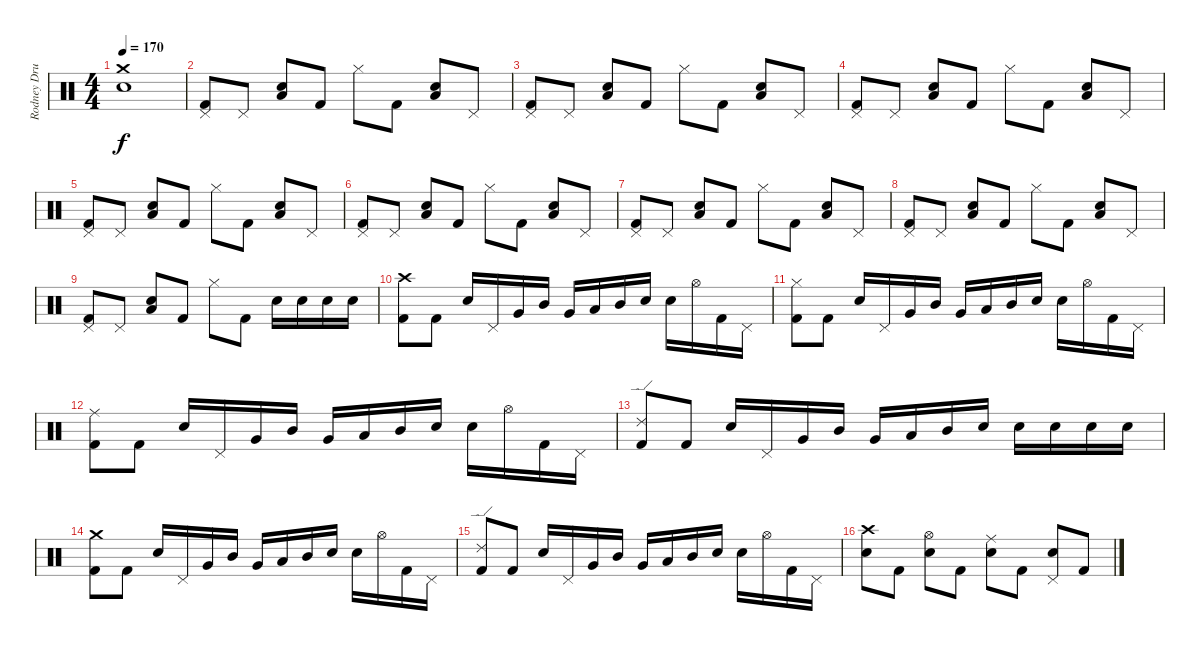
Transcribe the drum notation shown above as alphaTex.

\track ("Rodney Drums" "Rodney Dru") {instrument percussion}
\staff {score}
\articulation defaults
\ts (4 4)
\tempo 170
\clef neutral
\ks c
("Crash medium (hit)" "Electric Snare (hit)").1{dy f} |
("Pedal Hi-Hat (hit)" "Kick (hit) 2").8 "Pedal Hi-Hat (hit)".8 ("Electric Snare (hit)" "Low Tom (hit)").8 "Kick (hit) 2".8 "Hi-Hat (closed)".8 "Kick (hit) 2".8 ("Electric Snare (hit)" "Low Tom (hit)").8 "Pedal Hi-Hat (hit)".8 |
("Pedal Hi-Hat (hit)" "Kick (hit) 2").8 "Pedal Hi-Hat (hit)".8 ("Electric Snare (hit)" "Low Tom (hit)").8 "Kick (hit) 2".8 "Hi-Hat (closed)".8 "Kick (hit) 2".8 ("Electric Snare (hit)" "Low Tom (hit)").8 "Pedal Hi-Hat (hit)".8 |
("Pedal Hi-Hat (hit)" "Kick (hit) 2").8 "Pedal Hi-Hat (hit)".8 ("Electric Snare (hit)" "Low Tom (hit)").8 "Kick (hit) 2".8 "Hi-Hat (closed)".8 "Kick (hit) 2".8 ("Electric Snare (hit)" "Low Tom (hit)").8 "Pedal Hi-Hat (hit)".8 |
("Pedal Hi-Hat (hit)" "Kick (hit) 2").8 "Pedal Hi-Hat (hit)".8 ("Electric Snare (hit)" "Low Tom (hit)").8 "Kick (hit) 2".8 "Hi-Hat (closed)".8 "Kick (hit) 2".8 ("Electric Snare (hit)" "Low Tom (hit)").8 "Pedal Hi-Hat (hit)".8 |
("Pedal Hi-Hat (hit)" "Kick (hit) 2").8 "Pedal Hi-Hat (hit)".8 ("Electric Snare (hit)" "Low Tom (hit)").8 "Kick (hit) 2".8 "Hi-Hat (closed)".8 "Kick (hit) 2".8 ("Electric Snare (hit)" "Low Tom (hit)").8 "Pedal Hi-Hat (hit)".8 |
("Pedal Hi-Hat (hit)" "Kick (hit) 2").8 "Pedal Hi-Hat (hit)".8 ("Electric Snare (hit)" "Low Tom (hit)").8 "Kick (hit) 2".8 "Hi-Hat (closed)".8 "Kick (hit) 2".8 ("Electric Snare (hit)" "Low Tom (hit)").8 "Pedal Hi-Hat (hit)".8 |
("Pedal Hi-Hat (hit)" "Kick (hit) 2").8 "Pedal Hi-Hat (hit)".8 ("Electric Snare (hit)" "Low Tom (hit)").8 "Kick (hit) 2".8 "Hi-Hat (closed)".8 "Kick (hit) 2".8 ("Electric Snare (hit)" "Low Tom (hit)").8 "Pedal Hi-Hat (hit)".8 |
("Pedal Hi-Hat (hit)" "Kick (hit) 2").8 "Pedal Hi-Hat (hit)".8 ("Electric Snare (hit)" "Low Tom (hit)").8 "Kick (hit) 2".8 "Hi-Hat (closed)".8 "Kick (hit) 2".8 "Electric Snare (hit)".16 "Electric Snare (hit)".16 "Electric Snare (hit)".16 "Electric Snare (hit)".16 |
("Crash high (hit)" "Kick (hit) 2").8 "Kick (hit) 2".8 "Electric Snare (hit)".16 "Pedal Hi-Hat (hit)".16 "Very Low Tom (hit)".16 "Mid Tom (hit)".16 "Very Low Tom (hit)".16 "Low Tom (hit)".16 "Mid Tom (hit)".16 "Electric Snare (hit)".16 "Electric Snare (hit)".16 "Hi-Hat (open)".16 "Kick (hit) 2".16 "Pedal Hi-Hat (hit)".16 |
("Hi-Hat (closed)" "Kick (hit) 2").8 "Kick (hit) 2".8 "Electric Snare (hit)".16 "Pedal Hi-Hat (hit)".16 "Very Low Tom (hit)".16 "Mid Tom (hit)".16 "Very Low Tom (hit)".16 "Low Tom (hit)".16 "Mid Tom (hit)".16 "Electric Snare (hit)".16 "Electric Snare (hit)".16 "Hi-Hat (open)".16 "Kick (hit) 2".16 "Pedal Hi-Hat (hit)".16 |
("Ride (middle)" "Kick (hit) 2").8 "Kick (hit) 2".8 "Electric Snare (hit)".16 "Pedal Hi-Hat (hit)".16 "Very Low Tom (hit)".16 "Mid Tom (hit)".16 "Very Low Tom (hit)".16 "Low Tom (hit)".16 "Mid Tom (hit)".16 "Electric Snare (hit)".16 "Electric Snare (hit)".16 "Hi-Hat (open)".16 "Kick (hit) 2".16 "Pedal Hi-Hat (hit)".16 |
("Ride (edge) 2" "Kick (hit) 2").8 "Kick (hit) 2".8 "Electric Snare (hit)".16 "Pedal Hi-Hat (hit)".16 "Very Low Tom (hit)".16 "Mid Tom (hit)".16 "Very Low Tom (hit)".16 "Low Tom (hit)".16 "Mid Tom (hit)".16 "Electric Snare (hit)".16 "Electric Snare (hit)".16 "Electric Snare (hit)".16 "Electric Snare (hit)".16 "Electric Snare (hit)".16 |
("Crash medium (hit)" "Kick (hit) 2").8 "Kick (hit) 2".8 "Electric Snare (hit)".16 "Pedal Hi-Hat (hit)".16 "Very Low Tom (hit)".16 "Mid Tom (hit)".16 "Very Low Tom (hit)".16 "Low Tom (hit)".16 "Mid Tom (hit)".16 "Electric Snare (hit)".16 "Electric Snare (hit)".16 "Hi-Hat (open)".16 "Kick (hit) 2".16 "Pedal Hi-Hat (hit)".16 |
("Ride (edge) 2" "Kick (hit) 2").8 "Kick (hit) 2".8 "Electric Snare (hit)".16 "Pedal Hi-Hat (hit)".16 "Very Low Tom (hit)".16 "Mid Tom (hit)".16 "Very Low Tom (hit)".16 "Low Tom (hit)".16 "Mid Tom (hit)".16 "Electric Snare (hit)".16 "Electric Snare (hit)".16 "Hi-Hat (open)".16 "Kick (hit) 2".16 "Pedal Hi-Hat (hit)".16 |
("Crash high (hit)" "Electric Snare (hit)").8 "Kick (hit) 2".8 ("Hi-Hat (open)" "Electric Snare (hit)").8 "Kick (hit) 2".8 ("Ride (middle)" "Electric Snare (hit)").8 "Kick (hit) 2".8 ("Pedal Hi-Hat (hit)" "Electric Snare (hit)").8 "Kick (hit) 2".8
